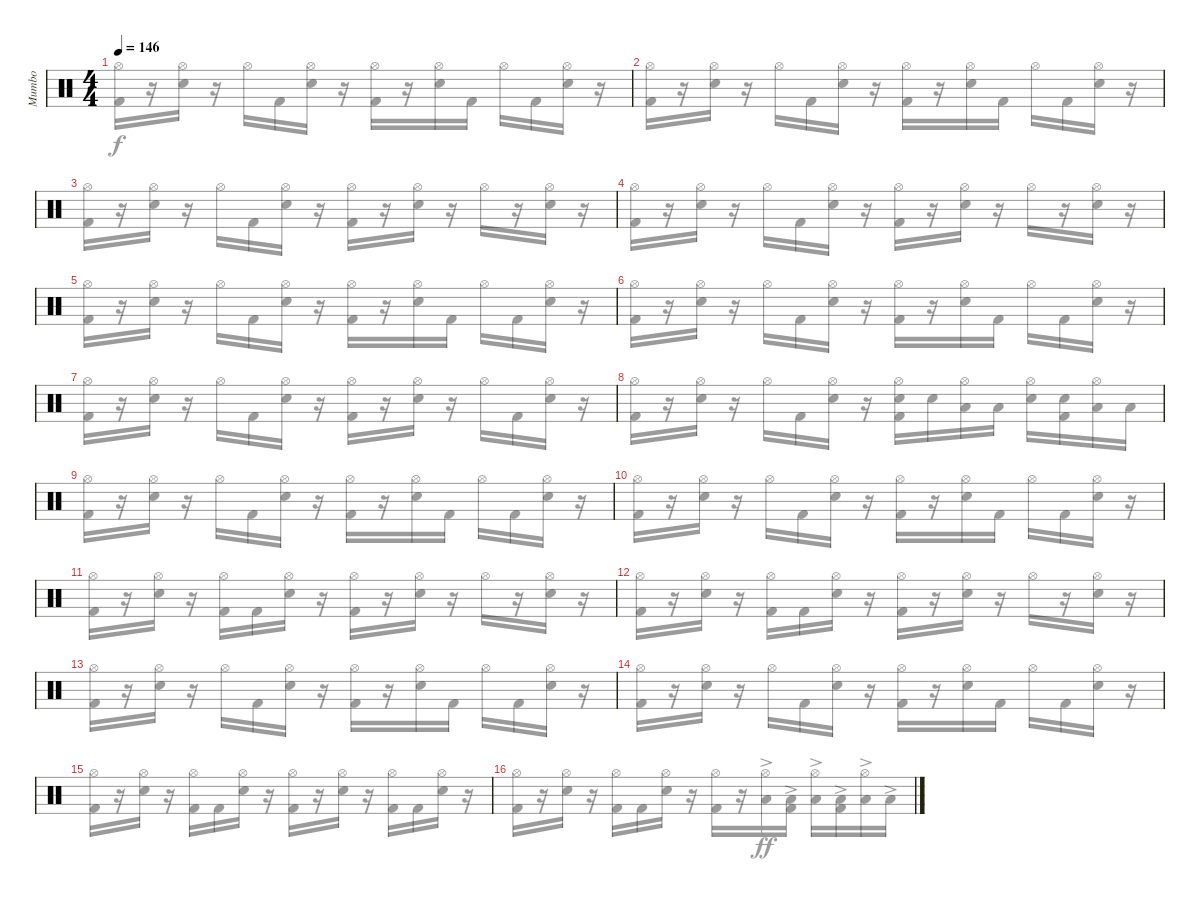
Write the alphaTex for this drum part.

\track ("Mumbo" "Mumbo") {instrument percussion}
\staff {score}
\articulation defaults
\voice
\ts (4 4)
\tempo 146
\clef neutral
\ks c
|
|
|
|
|
|
|
|
|
|
|
|
|
|
|
\voice
\clef neutral
\ks c
("Hi-Hat (open)" "Kick (hit) 2").16{dy f} r.16 ("Hi-Hat (open)" "Snare (hit) 2").16 r.16 "Hi-Hat (open)".16 "Kick (hit) 2".16 ("Hi-Hat (open)" "Snare (hit) 2").16 r.16 ("Hi-Hat (open)" "Kick (hit) 2").16 r.16 ("Hi-Hat (open)" "Snare (hit) 2").16 "Kick (hit) 2".16 "Hi-Hat (open)".16 "Kick (hit) 2".16 ("Hi-Hat (open)" "Snare (hit) 2").16 r.16 |
("Hi-Hat (open)" "Kick (hit) 2").16 r.16 ("Hi-Hat (open)" "Snare (hit) 2").16 r.16 "Hi-Hat (open)".16 "Kick (hit) 2".16 ("Hi-Hat (open)" "Snare (hit) 2").16 r.16 ("Hi-Hat (open)" "Kick (hit) 2").16 r.16 ("Hi-Hat (open)" "Snare (hit) 2").16 "Kick (hit) 2".16 "Hi-Hat (open)".16 "Kick (hit) 2".16 ("Hi-Hat (open)" "Snare (hit) 2").16 r.16 |
("Hi-Hat (open)" "Kick (hit) 2").16 r.16 ("Hi-Hat (open)" "Snare (hit) 2").16 r.16 "Hi-Hat (open)".16 "Kick (hit) 2".16 ("Hi-Hat (open)" "Snare (hit) 2").16 r.16 ("Hi-Hat (open)" "Kick (hit) 2").16 r.16 ("Hi-Hat (open)" "Snare (hit) 2").16 r.16 "Hi-Hat (open)".16 r.16 ("Hi-Hat (open)" "Snare (hit) 2").16 r.16 |
("Hi-Hat (open)" "Kick (hit) 2").16 r.16 ("Hi-Hat (open)" "Snare (hit) 2").16 r.16 "Hi-Hat (open)".16 "Kick (hit) 2".16 ("Hi-Hat (open)" "Snare (hit) 2").16 r.16 ("Hi-Hat (open)" "Kick (hit) 2").16 r.16 ("Hi-Hat (open)" "Snare (hit) 2").16 r.16 "Hi-Hat (open)".16 r.16 ("Hi-Hat (open)" "Snare (hit) 2").16 r.16 |
("Hi-Hat (open)" "Kick (hit) 2").16 r.16 ("Hi-Hat (open)" "Snare (hit) 2").16 r.16 "Hi-Hat (open)".16 "Kick (hit) 2".16 ("Hi-Hat (open)" "Snare (hit) 2").16 r.16 ("Hi-Hat (open)" "Kick (hit) 2").16 r.16 ("Hi-Hat (open)" "Snare (hit) 2").16 "Kick (hit) 2".16 "Hi-Hat (open)".16 "Kick (hit) 2".16 ("Hi-Hat (open)" "Snare (hit) 2").16 r.16 |
("Hi-Hat (open)" "Kick (hit) 2").16 r.16 ("Hi-Hat (open)" "Snare (hit) 2").16 r.16 "Hi-Hat (open)".16 "Kick (hit) 2".16 ("Hi-Hat (open)" "Snare (hit) 2").16 r.16 ("Hi-Hat (open)" "Kick (hit) 2").16 r.16 ("Hi-Hat (open)" "Snare (hit) 2").16 "Kick (hit) 2".16 "Hi-Hat (open)".16 "Kick (hit) 2".16 ("Hi-Hat (open)" "Snare (hit) 2").16 r.16 |
("Hi-Hat (open)" "Kick (hit) 2").16 r.16 ("Hi-Hat (open)" "Snare (hit) 2").16 r.16 "Hi-Hat (open)".16 "Kick (hit) 2".16 ("Hi-Hat (open)" "Snare (hit) 2").16 r.16 ("Hi-Hat (open)" "Kick (hit) 2").16 r.16 ("Hi-Hat (open)" "Snare (hit) 2").16 r.16 "Hi-Hat (open)".16 "Kick (hit) 2".16 ("Hi-Hat (open)" "Snare (hit) 2").16 r.16 |
("Hi-Hat (open)" "Kick (hit) 2").16 r.16 ("Hi-Hat (open)" "Snare (hit) 2").16 r.16 "Hi-Hat (open)".16 "Kick (hit) 2".16 ("Hi-Hat (open)" "Snare (hit) 2").16 r.16 ("Hi-Hat (open)" "Snare (hit) 2" "Kick (hit) 2").16 "Snare (hit) 2".16 ("Hi-Hat (open)" "Low Floor Tom (hit)").16 "Low Floor Tom (hit)".16 ("Hi-Hat (open)" "Snare (hit) 2").16 ("Snare (hit) 2" "Kick (hit) 2").16 ("Hi-Hat (open)" "Low Floor Tom (hit)").16 "Low Floor Tom (hit)".16 |
("Hi-Hat (open)" "Kick (hit) 2").16 r.16 ("Hi-Hat (open)" "Snare (hit) 2").16 r.16 "Hi-Hat (open)".16 "Kick (hit) 2".16 ("Hi-Hat (open)" "Snare (hit) 2").16 r.16 ("Hi-Hat (open)" "Kick (hit) 2").16 r.16 ("Hi-Hat (open)" "Snare (hit) 2").16 "Kick (hit) 2".16 "Hi-Hat (open)".16 "Kick (hit) 2".16 ("Hi-Hat (open)" "Snare (hit) 2").16 r.16 |
("Hi-Hat (open)" "Kick (hit) 2").16 r.16 ("Hi-Hat (open)" "Snare (hit) 2").16 r.16 "Hi-Hat (open)".16 "Kick (hit) 2".16 ("Hi-Hat (open)" "Snare (hit) 2").16 r.16 ("Hi-Hat (open)" "Kick (hit) 2").16 r.16 ("Hi-Hat (open)" "Snare (hit) 2").16 "Kick (hit) 2".16 "Hi-Hat (open)".16 "Kick (hit) 2".16 ("Hi-Hat (open)" "Snare (hit) 2").16 r.16 |
("Hi-Hat (open)" "Kick (hit) 2").16 r.16 ("Hi-Hat (open)" "Snare (hit) 2").16 r.16 ("Hi-Hat (open)" "Kick (hit) 2").16 "Kick (hit) 2".16 ("Hi-Hat (open)" "Snare (hit) 2").16 r.16 ("Hi-Hat (open)" "Kick (hit) 2").16 r.16 ("Hi-Hat (open)" "Snare (hit) 2").16 r.16 "Hi-Hat (open)".16 r.16 ("Hi-Hat (open)" "Snare (hit) 2").16 r.16 |
("Hi-Hat (open)" "Kick (hit) 2").16 r.16 ("Hi-Hat (open)" "Snare (hit) 2").16 r.16 ("Hi-Hat (open)" "Kick (hit) 2").16 "Kick (hit) 2".16 ("Hi-Hat (open)" "Snare (hit) 2").16 r.16 ("Hi-Hat (open)" "Kick (hit) 2").16 r.16 ("Hi-Hat (open)" "Snare (hit) 2").16 r.16 "Hi-Hat (open)".16 r.16 ("Hi-Hat (open)" "Snare (hit) 2").16 r.16 |
("Hi-Hat (open)" "Kick (hit) 2").16 r.16 ("Hi-Hat (open)" "Snare (hit) 2").16 r.16 "Hi-Hat (open)".16 "Kick (hit) 2".16 ("Hi-Hat (open)" "Snare (hit) 2").16 r.16 ("Hi-Hat (open)" "Kick (hit) 2").16 r.16 ("Hi-Hat (open)" "Snare (hit) 2").16 "Kick (hit) 2".16 "Hi-Hat (open)".16 "Kick (hit) 2".16 ("Hi-Hat (open)" "Snare (hit) 2").16 r.16 |
("Hi-Hat (open)" "Kick (hit) 2").16 r.16 ("Hi-Hat (open)" "Snare (hit) 2").16 r.16 "Hi-Hat (open)".16 "Kick (hit) 2".16 ("Hi-Hat (open)" "Snare (hit) 2").16 r.16 ("Hi-Hat (open)" "Kick (hit) 2").16 r.16 ("Hi-Hat (open)" "Snare (hit) 2").16 "Kick (hit) 2".16 "Hi-Hat (open)".16 "Kick (hit) 2".16 ("Hi-Hat (open)" "Snare (hit) 2").16 r.16 |
("Hi-Hat (open)" "Kick (hit) 2").16 r.16 ("Hi-Hat (open)" "Snare (hit) 2").16 r.16 ("Hi-Hat (open)" "Kick (hit) 2").16 "Kick (hit) 2".16 ("Hi-Hat (open)" "Snare (hit) 2").16 r.16 ("Hi-Hat (open)" "Kick (hit) 2").16 r.16 ("Hi-Hat (open)" "Snare (hit) 2").16 r.16 ("Hi-Hat (open)" "Kick (hit) 2").16 "Kick (hit) 2".16 ("Hi-Hat (open)" "Snare (hit) 2").16 r.16 |
("Hi-Hat (open)" "Kick (hit) 2").16 r.16 ("Hi-Hat (open)" "Snare (hit) 2").16 r.16 ("Hi-Hat (open)" "Kick (hit) 2").16 "Kick (hit) 2".16 ("Hi-Hat (open)" "Snare (hit) 2").16 r.16 ("Hi-Hat (open)" "Kick (hit) 2").16 r.16 ("Hi-Hat (open)" "Low Tom (hit)"{ac}).16{dy ff} ("Low Tom (hit)"{ac} "Kick (hit) 2").16 ("Hi-Hat (open)" "Low Tom (hit)"{ac}).16 ("Low Tom (hit)"{ac} "Kick (hit) 2").16 ("Hi-Hat (open)" "Low Tom (hit)"{ac}).16 "Low Tom (hit)"{ac}.16
